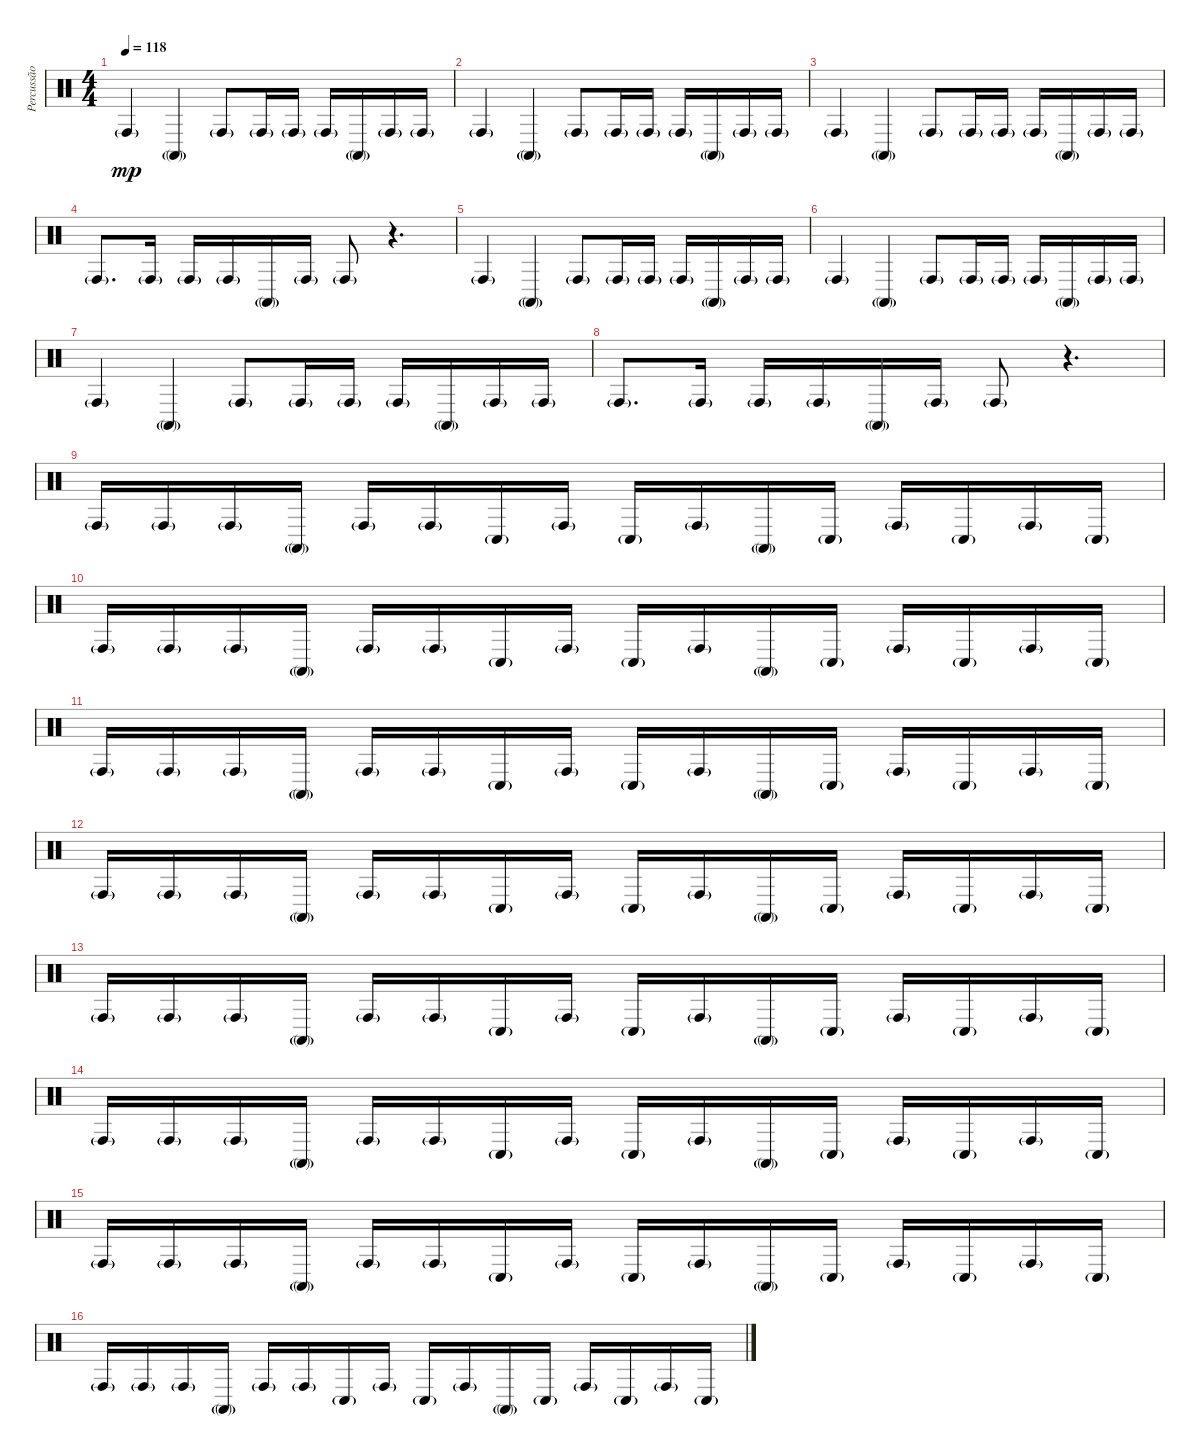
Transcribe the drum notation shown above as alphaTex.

\track ("Percussão" "Percussão") {instrument percussion}
\staff {score}
\articulation defaults
\ts (4 4)
\tempo 118
\clef neutral
\ks c "Conga high (hit)"{g}.4{dy mp} "Conga high (mute)"{g}.4 "Conga high (hit)"{g}.8 "Conga high (hit)"{g}.16 "Conga high (hit)"{g}.16 "Conga high (hit)"{g}.16 "Conga high (mute)"{g}.16 "Conga high (hit)"{g}.16 "Conga high (hit)"{g}.16
|
"Conga high (hit)"{g}.4 "Conga high (mute)"{g}.4 "Conga high (hit)"{g}.8 "Conga high (hit)"{g}.16 "Conga high (hit)"{g}.16 "Conga high (hit)"{g}.16 "Conga high (mute)"{g}.16 "Conga high (hit)"{g}.16 "Conga high (hit)"{g}.16 |
"Conga high (hit)"{g}.4 "Conga high (mute)"{g}.4 "Conga high (hit)"{g}.8 "Conga high (hit)"{g}.16 "Conga high (hit)"{g}.16 "Conga high (hit)"{g}.16 "Conga high (mute)"{g}.16 "Conga high (hit)"{g}.16 "Conga high (hit)"{g}.16 |
"Conga high (hit)"{g}.8{d} "Conga high (hit)"{g}.16 "Conga high (hit)"{g}.16 "Conga high (hit)"{g}.16 "Conga high (mute)"{g}.16 "Conga high (hit)"{g}.16 "Conga high (hit)"{g}.8 r.4{d} |
"Conga high (hit)"{g}.4 "Conga high (mute)"{g}.4 "Conga high (hit)"{g}.8 "Conga high (hit)"{g}.16 "Conga high (hit)"{g}.16 "Conga high (hit)"{g}.16 "Conga high (mute)"{g}.16 "Conga high (hit)"{g}.16 "Conga high (hit)"{g}.16 |
"Conga high (hit)"{g}.4 "Conga high (mute)"{g}.4 "Conga high (hit)"{g}.8 "Conga high (hit)"{g}.16 "Conga high (hit)"{g}.16 "Conga high (hit)"{g}.16 "Conga high (mute)"{g}.16 "Conga high (hit)"{g}.16 "Conga high (hit)"{g}.16 |
"Conga high (hit)"{g}.4 "Conga high (mute)"{g}.4 "Conga high (hit)"{g}.8 "Conga high (hit)"{g}.16 "Conga high (hit)"{g}.16 "Conga high (hit)"{g}.16 "Conga high (mute)"{g}.16 "Conga high (hit)"{g}.16 "Conga high (hit)"{g}.16 |
"Conga high (hit)"{g}.8{d} "Conga high (hit)"{g}.16 "Conga high (hit)"{g}.16 "Conga high (hit)"{g}.16 "Conga high (mute)"{g}.16 "Conga high (hit)"{g}.16 "Conga high (hit)"{g}.8 r.4{d} |
"Conga high (hit)"{g}.16 "Conga high (hit)"{g}.16 "Conga high (hit)"{g}.16 "Conga high (mute)"{g}.16 "Conga high (hit)"{g}.16 "Conga high (hit)"{g}.16 "Conga low (hit)"{g}.16 "Conga high (hit)"{g}.16 "Conga low (hit)"{g}.16 "Conga high (hit)"{g}.16 "Conga high (mute)"{g}.16 "Conga low (hit)"{g}.16 "Conga high (hit)"{g}.16 "Conga low (hit)"{g}.16 "Conga high (hit)"{g}.16 "Conga low (hit)"{g}.16 |
"Conga high (hit)"{g}.16 "Conga high (hit)"{g}.16 "Conga high (hit)"{g}.16 "Conga high (mute)"{g}.16 "Conga high (hit)"{g}.16 "Conga high (hit)"{g}.16 "Conga low (hit)"{g}.16 "Conga high (hit)"{g}.16 "Conga low (hit)"{g}.16 "Conga high (hit)"{g}.16 "Conga high (mute)"{g}.16 "Conga low (hit)"{g}.16 "Conga high (hit)"{g}.16 "Conga low (hit)"{g}.16 "Conga high (hit)"{g}.16 "Conga low (hit)"{g}.16 |
"Conga high (hit)"{g}.16 "Conga high (hit)"{g}.16 "Conga high (hit)"{g}.16 "Conga high (mute)"{g}.16 "Conga high (hit)"{g}.16 "Conga high (hit)"{g}.16 "Conga low (hit)"{g}.16 "Conga high (hit)"{g}.16 "Conga low (hit)"{g}.16 "Conga high (hit)"{g}.16 "Conga high (mute)"{g}.16 "Conga low (hit)"{g}.16 "Conga high (hit)"{g}.16 "Conga low (hit)"{g}.16 "Conga high (hit)"{g}.16 "Conga low (hit)"{g}.16 |
"Conga high (hit)"{g}.16 "Conga high (hit)"{g}.16 "Conga high (hit)"{g}.16 "Conga high (mute)"{g}.16 "Conga high (hit)"{g}.16 "Conga high (hit)"{g}.16 "Conga low (hit)"{g}.16 "Conga high (hit)"{g}.16 "Conga low (hit)"{g}.16 "Conga high (hit)"{g}.16 "Conga high (mute)"{g}.16 "Conga low (hit)"{g}.16 "Conga high (hit)"{g}.16 "Conga low (hit)"{g}.16 "Conga high (hit)"{g}.16 "Conga low (hit)"{g}.16 |
"Conga high (hit)"{g}.16 "Conga high (hit)"{g}.16 "Conga high (hit)"{g}.16 "Conga high (mute)"{g}.16 "Conga high (hit)"{g}.16 "Conga high (hit)"{g}.16 "Conga low (hit)"{g}.16 "Conga high (hit)"{g}.16 "Conga low (hit)"{g}.16 "Conga high (hit)"{g}.16 "Conga high (mute)"{g}.16 "Conga low (hit)"{g}.16 "Conga high (hit)"{g}.16 "Conga low (hit)"{g}.16 "Conga high (hit)"{g}.16 "Conga low (hit)"{g}.16 |
"Conga high (hit)"{g}.16 "Conga high (hit)"{g}.16 "Conga high (hit)"{g}.16 "Conga high (mute)"{g}.16 "Conga high (hit)"{g}.16 "Conga high (hit)"{g}.16 "Conga low (hit)"{g}.16 "Conga high (hit)"{g}.16 "Conga low (hit)"{g}.16 "Conga high (hit)"{g}.16 "Conga high (mute)"{g}.16 "Conga low (hit)"{g}.16 "Conga high (hit)"{g}.16 "Conga low (hit)"{g}.16 "Conga high (hit)"{g}.16 "Conga low (hit)"{g}.16 |
"Conga high (hit)"{g}.16 "Conga high (hit)"{g}.16 "Conga high (hit)"{g}.16 "Conga high (mute)"{g}.16 "Conga high (hit)"{g}.16 "Conga high (hit)"{g}.16 "Conga low (hit)"{g}.16 "Conga high (hit)"{g}.16 "Conga low (hit)"{g}.16 "Conga high (hit)"{g}.16 "Conga high (mute)"{g}.16 "Conga low (hit)"{g}.16 "Conga high (hit)"{g}.16 "Conga low (hit)"{g}.16 "Conga high (hit)"{g}.16 "Conga low (hit)"{g}.16 |
"Conga high (hit)"{g}.16 "Conga high (hit)"{g}.16 "Conga high (hit)"{g}.16 "Conga high (mute)"{g}.16 "Conga high (hit)"{g}.16 "Conga high (hit)"{g}.16 "Conga low (hit)"{g}.16 "Conga high (hit)"{g}.16 "Conga low (hit)"{g}.16 "Conga high (hit)"{g}.16 "Conga high (mute)"{g}.16 "Conga low (hit)"{g}.16 "Conga high (hit)"{g}.16 "Conga low (hit)"{g}.16 "Conga high (hit)"{g}.16 "Conga low (hit)"{g}.16
